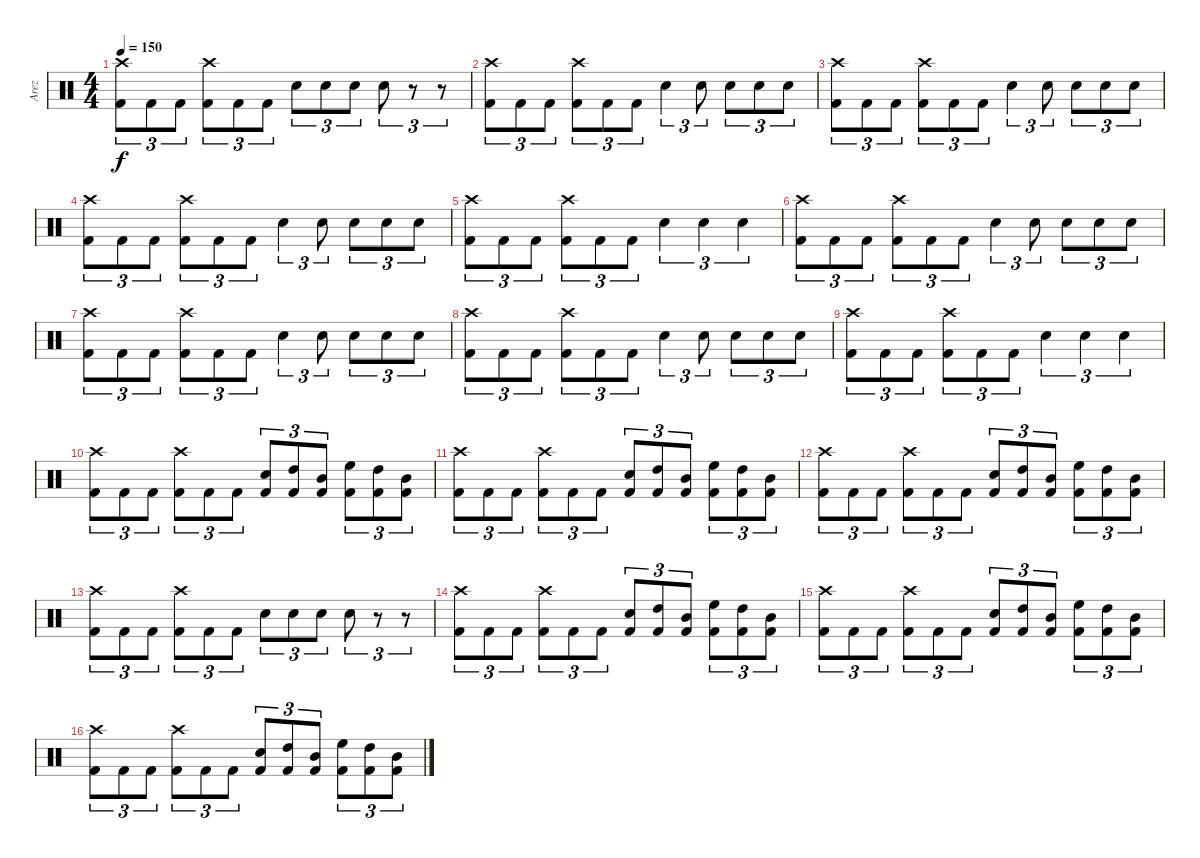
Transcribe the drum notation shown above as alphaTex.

\track ("Arez" "Arez") {instrument percussion}
\staff {score}
\articulation defaults
\ts (4 4)
\tempo 150
\clef neutral
\ks c
("Crash high (hit)" "Kick (hit) 2").8{tu (3 2) dy f} "Kick (hit) 2".8{tu (3 2)} "Kick (hit) 2".8{tu (3 2)} ("Kick (hit) 2" "Crash high (hit)").8{tu (3 2)} "Kick (hit) 2".8{tu (3 2)} "Kick (hit) 2".8{tu (3 2)} "Electric Snare (hit)".8{tu (3 2)} "Electric Snare (hit)".8{tu (3 2)} "Electric Snare (hit)".8{tu (3 2)} "Electric Snare (hit)".8{tu (3 2)} r.8{tu (3 2)} r.8{tu (3 2)} |
("Crash high (hit)" "Kick (hit) 2").8{tu (3 2)} "Kick (hit) 2".8{tu (3 2)} "Kick (hit) 2".8{tu (3 2)} ("Kick (hit) 2" "Crash high (hit)").8{tu (3 2)} "Kick (hit) 2".8{tu (3 2)} "Kick (hit) 2".8{tu (3 2)} "Electric Snare (hit)".4{tu (3 2)} "Electric Snare (hit)".8{tu (3 2)} "Electric Snare (hit)".8{tu (3 2)} "Electric Snare (hit)".8{tu (3 2)} "Electric Snare (hit)".8{tu (3 2)} |
("Crash high (hit)" "Kick (hit) 2").8{tu (3 2)} "Kick (hit) 2".8{tu (3 2)} "Kick (hit) 2".8{tu (3 2)} ("Kick (hit) 2" "Crash high (hit)").8{tu (3 2)} "Kick (hit) 2".8{tu (3 2)} "Kick (hit) 2".8{tu (3 2)} "Electric Snare (hit)".4{tu (3 2)} "Electric Snare (hit)".8{tu (3 2)} "Electric Snare (hit)".8{tu (3 2)} "Electric Snare (hit)".8{tu (3 2)} "Electric Snare (hit)".8{tu (3 2)} |
("Crash high (hit)" "Kick (hit) 2").8{tu (3 2)} "Kick (hit) 2".8{tu (3 2)} "Kick (hit) 2".8{tu (3 2)} ("Kick (hit) 2" "Crash high (hit)").8{tu (3 2)} "Kick (hit) 2".8{tu (3 2)} "Kick (hit) 2".8{tu (3 2)} "Electric Snare (hit)".4{tu (3 2)} "Electric Snare (hit)".8{tu (3 2)} "Electric Snare (hit)".8{tu (3 2)} "Electric Snare (hit)".8{tu (3 2)} "Electric Snare (hit)".8{tu (3 2)} |
("Crash high (hit)" "Kick (hit) 2").8{tu (3 2)} "Kick (hit) 2".8{tu (3 2)} "Kick (hit) 2".8{tu (3 2)} ("Kick (hit) 2" "Crash high (hit)").8{tu (3 2)} "Kick (hit) 2".8{tu (3 2)} "Kick (hit) 2".8{tu (3 2)} "Electric Snare (hit)".4{tu (3 2)} "Electric Snare (hit)".4{tu (3 2)} "Electric Snare (hit)".4{tu (3 2)} |
("Crash high (hit)" "Kick (hit) 2").8{tu (3 2)} "Kick (hit) 2".8{tu (3 2)} "Kick (hit) 2".8{tu (3 2)} ("Kick (hit) 2" "Crash high (hit)").8{tu (3 2)} "Kick (hit) 2".8{tu (3 2)} "Kick (hit) 2".8{tu (3 2)} "Electric Snare (hit)".4{tu (3 2)} "Electric Snare (hit)".8{tu (3 2)} "Electric Snare (hit)".8{tu (3 2)} "Electric Snare (hit)".8{tu (3 2)} "Electric Snare (hit)".8{tu (3 2)} |
("Crash high (hit)" "Kick (hit) 2").8{tu (3 2)} "Kick (hit) 2".8{tu (3 2)} "Kick (hit) 2".8{tu (3 2)} ("Kick (hit) 2" "Crash high (hit)").8{tu (3 2)} "Kick (hit) 2".8{tu (3 2)} "Kick (hit) 2".8{tu (3 2)} "Electric Snare (hit)".4{tu (3 2)} "Electric Snare (hit)".8{tu (3 2)} "Electric Snare (hit)".8{tu (3 2)} "Electric Snare (hit)".8{tu (3 2)} "Electric Snare (hit)".8{tu (3 2)} |
("Crash high (hit)" "Kick (hit) 2").8{tu (3 2)} "Kick (hit) 2".8{tu (3 2)} "Kick (hit) 2".8{tu (3 2)} ("Kick (hit) 2" "Crash high (hit)").8{tu (3 2)} "Kick (hit) 2".8{tu (3 2)} "Kick (hit) 2".8{tu (3 2)} "Electric Snare (hit)".4{tu (3 2)} "Electric Snare (hit)".8{tu (3 2)} "Electric Snare (hit)".8{tu (3 2)} "Electric Snare (hit)".8{tu (3 2)} "Electric Snare (hit)".8{tu (3 2)} |
("Crash high (hit)" "Kick (hit) 2").8{tu (3 2)} "Kick (hit) 2".8{tu (3 2)} "Kick (hit) 2".8{tu (3 2)} ("Kick (hit) 2" "Crash high (hit)").8{tu (3 2)} "Kick (hit) 2".8{tu (3 2)} "Kick (hit) 2".8{tu (3 2)} "Electric Snare (hit)".4{tu (3 2)} "Electric Snare (hit)".4{tu (3 2)} "Electric Snare (hit)".4{tu (3 2)} |
("Crash high (hit)" "Kick (hit) 2").8{tu (3 2)} "Kick (hit) 2".8{tu (3 2)} "Kick (hit) 2".8{tu (3 2)} ("Kick (hit) 2" "Crash high (hit)").8{tu (3 2)} "Kick (hit) 2".8{tu (3 2)} "Kick (hit) 2".8{tu (3 2)} ("Kick (hit) 2" "Electric Snare (hit)").8{tu (3 2)} ("High Tom (hit)" "Kick (hit) 2").8{tu (3 2)} ("Kick (hit) 2" "Mid Tom (hit)").8{tu (3 2)} ("Kick (hit) 2" "High Floor Tom (hit)").8{tu (3 2)} ("High Tom (hit)" "Kick (hit) 2").8{tu (3 2)} ("Kick (hit) 2" "Mid Tom (hit)").8{tu (3 2)} |
("Crash high (hit)" "Kick (hit) 2").8{tu (3 2)} "Kick (hit) 2".8{tu (3 2)} "Kick (hit) 2".8{tu (3 2)} ("Kick (hit) 2" "Crash high (hit)").8{tu (3 2)} "Kick (hit) 2".8{tu (3 2)} "Kick (hit) 2".8{tu (3 2)} ("Kick (hit) 2" "Electric Snare (hit)").8{tu (3 2)} ("High Tom (hit)" "Kick (hit) 2").8{tu (3 2)} ("Kick (hit) 2" "Mid Tom (hit)").8{tu (3 2)} ("Kick (hit) 2" "High Floor Tom (hit)").8{tu (3 2)} ("High Tom (hit)" "Kick (hit) 2").8{tu (3 2)} ("Kick (hit) 2" "Mid Tom (hit)").8{tu (3 2)} |
("Crash high (hit)" "Kick (hit) 2").8{tu (3 2)} "Kick (hit) 2".8{tu (3 2)} "Kick (hit) 2".8{tu (3 2)} ("Kick (hit) 2" "Crash high (hit)").8{tu (3 2)} "Kick (hit) 2".8{tu (3 2)} "Kick (hit) 2".8{tu (3 2)} ("Kick (hit) 2" "Electric Snare (hit)").8{tu (3 2)} ("High Tom (hit)" "Kick (hit) 2").8{tu (3 2)} ("Kick (hit) 2" "Mid Tom (hit)").8{tu (3 2)} ("Kick (hit) 2" "High Floor Tom (hit)").8{tu (3 2)} ("High Tom (hit)" "Kick (hit) 2").8{tu (3 2)} ("Kick (hit) 2" "Mid Tom (hit)").8{tu (3 2)} |
("Crash high (hit)" "Kick (hit) 2").8{tu (3 2)} "Kick (hit) 2".8{tu (3 2)} "Kick (hit) 2".8{tu (3 2)} ("Kick (hit) 2" "Crash high (hit)").8{tu (3 2)} "Kick (hit) 2".8{tu (3 2)} "Kick (hit) 2".8{tu (3 2)} "Electric Snare (hit)".8{tu (3 2)} "Electric Snare (hit)".8{tu (3 2)} "Electric Snare (hit)".8{tu (3 2)} "Electric Snare (hit)".8{tu (3 2)} r.8{tu (3 2)} r.8{tu (3 2)} |
("Crash high (hit)" "Kick (hit) 2").8{tu (3 2)} "Kick (hit) 2".8{tu (3 2)} "Kick (hit) 2".8{tu (3 2)} ("Kick (hit) 2" "Crash high (hit)").8{tu (3 2)} "Kick (hit) 2".8{tu (3 2)} "Kick (hit) 2".8{tu (3 2)} ("Kick (hit) 2" "Electric Snare (hit)").8{tu (3 2)} ("High Tom (hit)" "Kick (hit) 2").8{tu (3 2)} ("Kick (hit) 2" "Mid Tom (hit)").8{tu (3 2)} ("Kick (hit) 2" "High Floor Tom (hit)").8{tu (3 2)} ("High Tom (hit)" "Kick (hit) 2").8{tu (3 2)} ("Kick (hit) 2" "Mid Tom (hit)").8{tu (3 2)} |
("Crash high (hit)" "Kick (hit) 2").8{tu (3 2)} "Kick (hit) 2".8{tu (3 2)} "Kick (hit) 2".8{tu (3 2)} ("Kick (hit) 2" "Crash high (hit)").8{tu (3 2)} "Kick (hit) 2".8{tu (3 2)} "Kick (hit) 2".8{tu (3 2)} ("Kick (hit) 2" "Electric Snare (hit)").8{tu (3 2)} ("High Tom (hit)" "Kick (hit) 2").8{tu (3 2)} ("Kick (hit) 2" "Mid Tom (hit)").8{tu (3 2)} ("Kick (hit) 2" "High Floor Tom (hit)").8{tu (3 2)} ("High Tom (hit)" "Kick (hit) 2").8{tu (3 2)} ("Kick (hit) 2" "Mid Tom (hit)").8{tu (3 2)} |
("Crash high (hit)" "Kick (hit) 2").8{tu (3 2)} "Kick (hit) 2".8{tu (3 2)} "Kick (hit) 2".8{tu (3 2)} ("Kick (hit) 2" "Crash high (hit)").8{tu (3 2)} "Kick (hit) 2".8{tu (3 2)} "Kick (hit) 2".8{tu (3 2)} ("Kick (hit) 2" "Electric Snare (hit)").8{tu (3 2)} ("High Tom (hit)" "Kick (hit) 2").8{tu (3 2)} ("Kick (hit) 2" "Mid Tom (hit)").8{tu (3 2)} ("Kick (hit) 2" "High Floor Tom (hit)").8{tu (3 2)} ("High Tom (hit)" "Kick (hit) 2").8{tu (3 2)} ("Kick (hit) 2" "Mid Tom (hit)").8{tu (3 2)}
